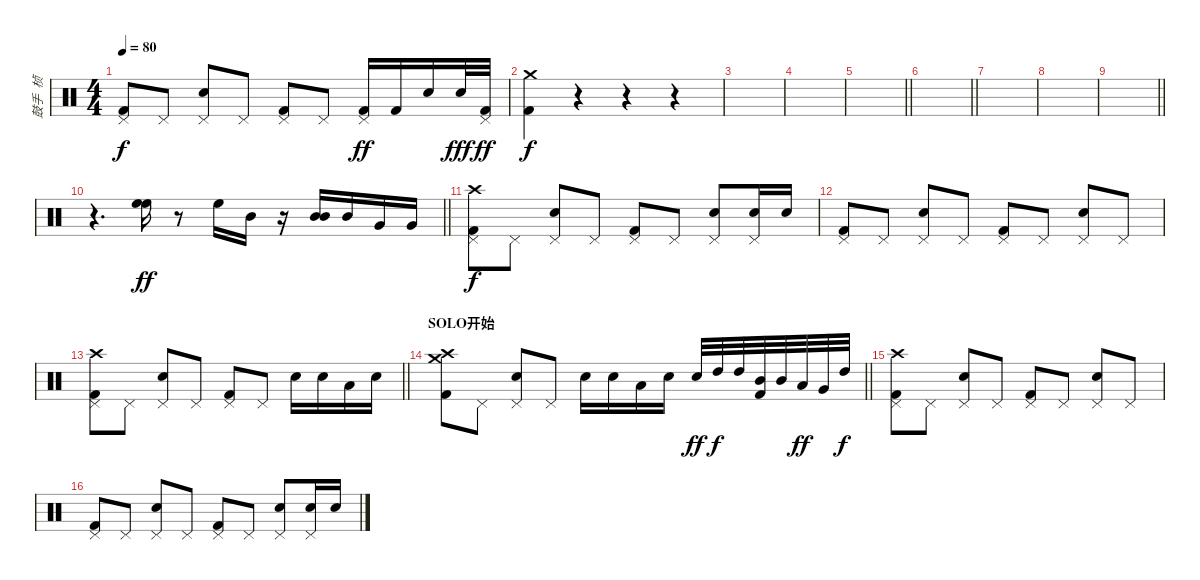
\track ("鼓手  桢" "鼓手  桢") {instrument percussion}
\staff {score}
\articulation defaults
\ts (4 4)
\tempo 80
\clef neutral
\ks c
("Pedal Hi-Hat (hit)" "Kick (hit) 2").8{dy f} "Pedal Hi-Hat (hit)".8 ("Pedal Hi-Hat (hit)" "Snare (hit) 2").8 "Pedal Hi-Hat (hit)".8 ("Pedal Hi-Hat (hit)" "Kick (hit) 2").8 "Pedal Hi-Hat (hit)".8 ("Kick (hit) 2" "Pedal Hi-Hat (hit)").16{dy ff} "Kick (hit) 2".16 "Electric Snare (hit)".16 "Electric Snare (hit)".32{dy fff} ("Kick (hit) 2" "Pedal Hi-Hat (hit)").32{dy ff} |
("Crash medium (hit)" "Kick (hit) 2").4{dy f} r.4 r.4 r.4 |
|
|
\barLineRight lightlight
|
\barLineRight lightlight
|
|
|
\barLineRight lightlight
|
\barLineRight lightlight
r.4{d} ("High Floor Tom (hit)" "High Floor Tom (hit)").16{dy ff} r.8 "High Floor Tom (hit)".16 "Mid Tom (hit)".16 r.16 ("Mid Tom (hit)" "Mid Tom (hit)").16 "Mid Tom (hit)".16 "Very Low Tom (hit)".16 "Very Low Tom (hit)".16 |
("Pedal Hi-Hat (hit)" "Kick (hit) 2" "Crash high (hit)").8{dy f} "Pedal Hi-Hat (hit)".8 ("Pedal Hi-Hat (hit)" "Snare (hit) 2").8 "Pedal Hi-Hat (hit)".8 ("Pedal Hi-Hat (hit)" "Kick (hit) 2").8 "Pedal Hi-Hat (hit)".8 ("Pedal Hi-Hat (hit)" "Snare (hit) 2").8 ("Pedal Hi-Hat (hit)" "Snare (hit) 2").16 "Snare (hit) 2".16 |
("Pedal Hi-Hat (hit)" "Kick (hit) 2").8 "Pedal Hi-Hat (hit)".8 ("Pedal Hi-Hat (hit)" "Snare (hit) 2").8 "Pedal Hi-Hat (hit)".8 ("Pedal Hi-Hat (hit)" "Kick (hit) 2").8 "Pedal Hi-Hat (hit)".8 ("Pedal Hi-Hat (hit)" "Snare (hit) 2").8 "Pedal Hi-Hat (hit)".8 |
\barLineRight lightlight
("Pedal Hi-Hat (hit)" "Kick (hit) 2" "Crash high (hit)").8 "Pedal Hi-Hat (hit)".8 ("Pedal Hi-Hat (hit)" "Snare (hit) 2").8 "Pedal Hi-Hat (hit)".8 ("Pedal Hi-Hat (hit)" "Kick (hit) 2").8 "Pedal Hi-Hat (hit)".8 "Snare (hit) 2".16 "Snare (hit) 2".16 "Low Tom (hit)".16 "Snare (hit) 2".16 |
\section ("" "SOLO开始")
\barLineRight lightlight
("Crash high (hit)" "Crash medium (hit)" "Kick (hit) 2").8 "Pedal Hi-Hat (hit)".8 ("Pedal Hi-Hat (hit)" "Snare (hit) 2").8 "Pedal Hi-Hat (hit)".8 "Snare (hit) 2".16 "Snare (hit) 2".16 "Low Tom (hit)".16 "Snare (hit) 2".16 "Electric Snare (hit)".32{dy ff} "High Tom (hit)".32{dy f} "High Tom (hit)".32 ("Mid Tom (hit)" "Kick (hit) 2").32 "Mid Tom (hit)".32 "Low Tom (hit)".32{dy ff} "Very Low Tom (hit)".32 "High Tom (hit)".32{dy f} |
("Pedal Hi-Hat (hit)" "Kick (hit) 2" "Crash high (hit)").8 "Pedal Hi-Hat (hit)".8 ("Pedal Hi-Hat (hit)" "Snare (hit) 2").8 "Pedal Hi-Hat (hit)".8 ("Pedal Hi-Hat (hit)" "Kick (hit) 2").8 "Pedal Hi-Hat (hit)".8 ("Pedal Hi-Hat (hit)" "Snare (hit) 2").8 "Pedal Hi-Hat (hit)".8 |
("Pedal Hi-Hat (hit)" "Kick (hit) 2").8 "Pedal Hi-Hat (hit)".8 ("Pedal Hi-Hat (hit)" "Snare (hit) 2").8 "Pedal Hi-Hat (hit)".8 ("Pedal Hi-Hat (hit)" "Kick (hit) 2").8 "Pedal Hi-Hat (hit)".8 ("Pedal Hi-Hat (hit)" "Snare (hit) 2").8 ("Pedal Hi-Hat (hit)" "Snare (hit) 2").16 "Snare (hit) 2".16
